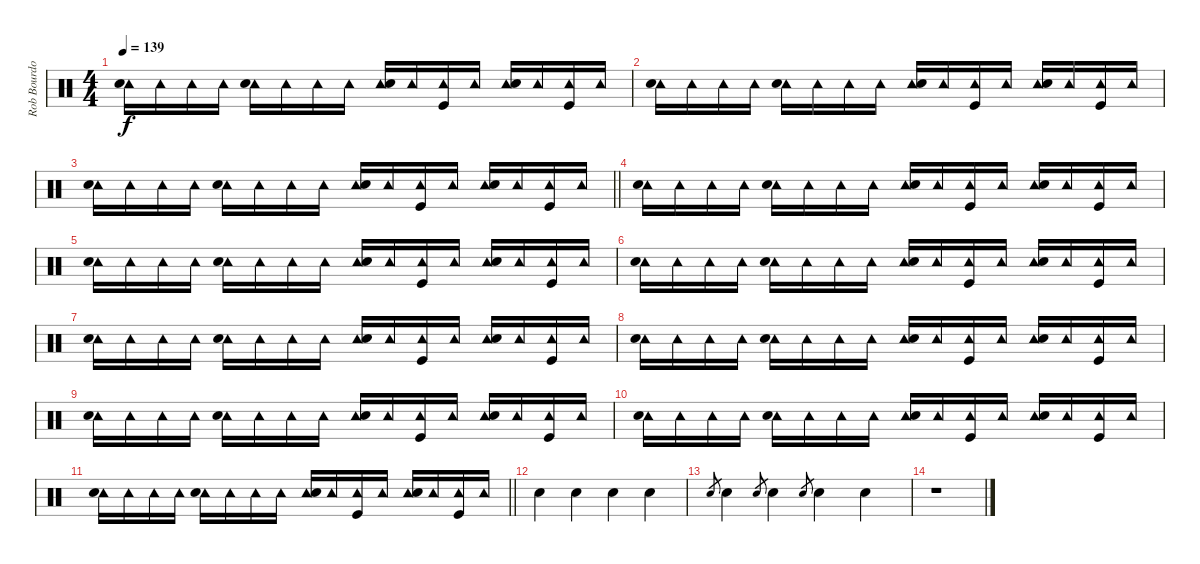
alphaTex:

\track ("Rob Bourdon [Drums] / Clap from Audience" "Rob Bourdo") {instrument percussion}
\staff {score}
\articulation defaults
\ts (4 4)
\tempo 139
\clef neutral
\ks c
("Tambourine (hit)" "Snare (hit) 2").16{dy f} "Tambourine (hit)".16 "Tambourine (hit)".16 "Tambourine (hit)".16 ("Tambourine (hit)" "Snare (hit) 2").16 "Tambourine (hit)".16 "Tambourine (hit)".16 "Tambourine (hit)".16 ("Tambourine (hit)" "Snare (hit) 2").16 "Tambourine (hit)".16 ("Tambourine (hit)" "Kick (hit)").16 "Tambourine (hit)".16 ("Tambourine (hit)" "Snare (hit) 2").16 "Tambourine (hit)".16 ("Tambourine (hit)" "Kick (hit)").16 "Tambourine (hit)".16 |
("Tambourine (hit)" "Snare (hit) 2").16 "Tambourine (hit)".16 "Tambourine (hit)".16 "Tambourine (hit)".16 ("Tambourine (hit)" "Snare (hit) 2").16 "Tambourine (hit)".16 "Tambourine (hit)".16 "Tambourine (hit)".16 ("Tambourine (hit)" "Snare (hit) 2").16 "Tambourine (hit)".16 ("Tambourine (hit)" "Kick (hit)").16 "Tambourine (hit)".16 ("Tambourine (hit)" "Snare (hit) 2").16 "Tambourine (hit)".16 ("Tambourine (hit)" "Kick (hit)").16 "Tambourine (hit)".16 |
\barLineRight lightlight
("Tambourine (hit)" "Snare (hit) 2").16 "Tambourine (hit)".16 "Tambourine (hit)".16 "Tambourine (hit)".16 ("Tambourine (hit)" "Snare (hit) 2").16 "Tambourine (hit)".16 "Tambourine (hit)".16 "Tambourine (hit)".16 ("Tambourine (hit)" "Snare (hit) 2").16 "Tambourine (hit)".16 ("Tambourine (hit)" "Kick (hit)").16 "Tambourine (hit)".16 ("Tambourine (hit)" "Snare (hit) 2").16 "Tambourine (hit)".16 ("Tambourine (hit)" "Kick (hit)").16 "Tambourine (hit)".16 |
("Tambourine (hit)" "Snare (hit) 2").16 "Tambourine (hit)".16 "Tambourine (hit)".16 "Tambourine (hit)".16 ("Tambourine (hit)" "Snare (hit) 2").16 "Tambourine (hit)".16 "Tambourine (hit)".16 "Tambourine (hit)".16 ("Tambourine (hit)" "Snare (hit) 2").16 "Tambourine (hit)".16 ("Tambourine (hit)" "Kick (hit)").16 "Tambourine (hit)".16 ("Tambourine (hit)" "Snare (hit) 2").16 "Tambourine (hit)".16 ("Tambourine (hit)" "Kick (hit)").16 "Tambourine (hit)".16 |
("Tambourine (hit)" "Snare (hit) 2").16 "Tambourine (hit)".16 "Tambourine (hit)".16 "Tambourine (hit)".16 ("Tambourine (hit)" "Snare (hit) 2").16 "Tambourine (hit)".16 "Tambourine (hit)".16 "Tambourine (hit)".16 ("Tambourine (hit)" "Snare (hit) 2").16 "Tambourine (hit)".16 ("Tambourine (hit)" "Kick (hit)").16 "Tambourine (hit)".16 ("Tambourine (hit)" "Snare (hit) 2").16 "Tambourine (hit)".16 ("Tambourine (hit)" "Kick (hit)").16 "Tambourine (hit)".16 |
("Tambourine (hit)" "Snare (hit) 2").16 "Tambourine (hit)".16 "Tambourine (hit)".16 "Tambourine (hit)".16 ("Tambourine (hit)" "Snare (hit) 2").16 "Tambourine (hit)".16 "Tambourine (hit)".16 "Tambourine (hit)".16 ("Tambourine (hit)" "Snare (hit) 2").16 "Tambourine (hit)".16 ("Tambourine (hit)" "Kick (hit)").16 "Tambourine (hit)".16 ("Tambourine (hit)" "Snare (hit) 2").16 "Tambourine (hit)".16 ("Tambourine (hit)" "Kick (hit)").16 "Tambourine (hit)".16 |
("Tambourine (hit)" "Snare (hit) 2").16 "Tambourine (hit)".16 "Tambourine (hit)".16 "Tambourine (hit)".16 ("Tambourine (hit)" "Snare (hit) 2").16 "Tambourine (hit)".16 "Tambourine (hit)".16 "Tambourine (hit)".16 ("Tambourine (hit)" "Snare (hit) 2").16 "Tambourine (hit)".16 ("Tambourine (hit)" "Kick (hit)").16 "Tambourine (hit)".16 ("Tambourine (hit)" "Snare (hit) 2").16 "Tambourine (hit)".16 ("Tambourine (hit)" "Kick (hit)").16 "Tambourine (hit)".16 |
("Tambourine (hit)" "Snare (hit) 2").16 "Tambourine (hit)".16 "Tambourine (hit)".16 "Tambourine (hit)".16 ("Tambourine (hit)" "Snare (hit) 2").16 "Tambourine (hit)".16 "Tambourine (hit)".16 "Tambourine (hit)".16 ("Tambourine (hit)" "Snare (hit) 2").16 "Tambourine (hit)".16 ("Tambourine (hit)" "Kick (hit)").16 "Tambourine (hit)".16 ("Tambourine (hit)" "Snare (hit) 2").16 "Tambourine (hit)".16 ("Tambourine (hit)" "Kick (hit)").16 "Tambourine (hit)".16 |
("Tambourine (hit)" "Snare (hit) 2").16 "Tambourine (hit)".16 "Tambourine (hit)".16 "Tambourine (hit)".16 ("Tambourine (hit)" "Snare (hit) 2").16 "Tambourine (hit)".16 "Tambourine (hit)".16 "Tambourine (hit)".16 ("Tambourine (hit)" "Snare (hit) 2").16 "Tambourine (hit)".16 ("Tambourine (hit)" "Kick (hit)").16 "Tambourine (hit)".16 ("Tambourine (hit)" "Snare (hit) 2").16 "Tambourine (hit)".16 ("Tambourine (hit)" "Kick (hit)").16 "Tambourine (hit)".16 |
("Tambourine (hit)" "Snare (hit) 2").16 "Tambourine (hit)".16 "Tambourine (hit)".16 "Tambourine (hit)".16 ("Tambourine (hit)" "Snare (hit) 2").16 "Tambourine (hit)".16 "Tambourine (hit)".16 "Tambourine (hit)".16 ("Tambourine (hit)" "Snare (hit) 2").16 "Tambourine (hit)".16 ("Tambourine (hit)" "Kick (hit)").16 "Tambourine (hit)".16 ("Tambourine (hit)" "Snare (hit) 2").16 "Tambourine (hit)".16 ("Tambourine (hit)" "Kick (hit)").16 "Tambourine (hit)".16 |
\barLineRight lightlight
("Tambourine (hit)" "Snare (hit) 2").16 "Tambourine (hit)".16 "Tambourine (hit)".16 "Tambourine (hit)".16 ("Tambourine (hit)" "Snare (hit) 2").16 "Tambourine (hit)".16 "Tambourine (hit)".16 "Tambourine (hit)".16 ("Tambourine (hit)" "Snare (hit) 2").16 "Tambourine (hit)".16 ("Tambourine (hit)" "Kick (hit)").16 "Tambourine (hit)".16 ("Tambourine (hit)" "Snare (hit) 2").16 "Tambourine (hit)".16 ("Tambourine (hit)" "Kick (hit)").16 "Tambourine (hit)".16 |
"Hand Clap (hit)".4 "Hand Clap (hit)".4 "Hand Clap (hit)".4 "Hand Clap (hit)".4 |
"Hand Clap (hit)".8{gr} "Hand Clap (hit)".4 "Hand Clap (hit)".8{gr} "Hand Clap (hit)".4 "Hand Clap (hit)".8{gr} "Hand Clap (hit)".4 "Hand Clap (hit)".4 |
r.1
